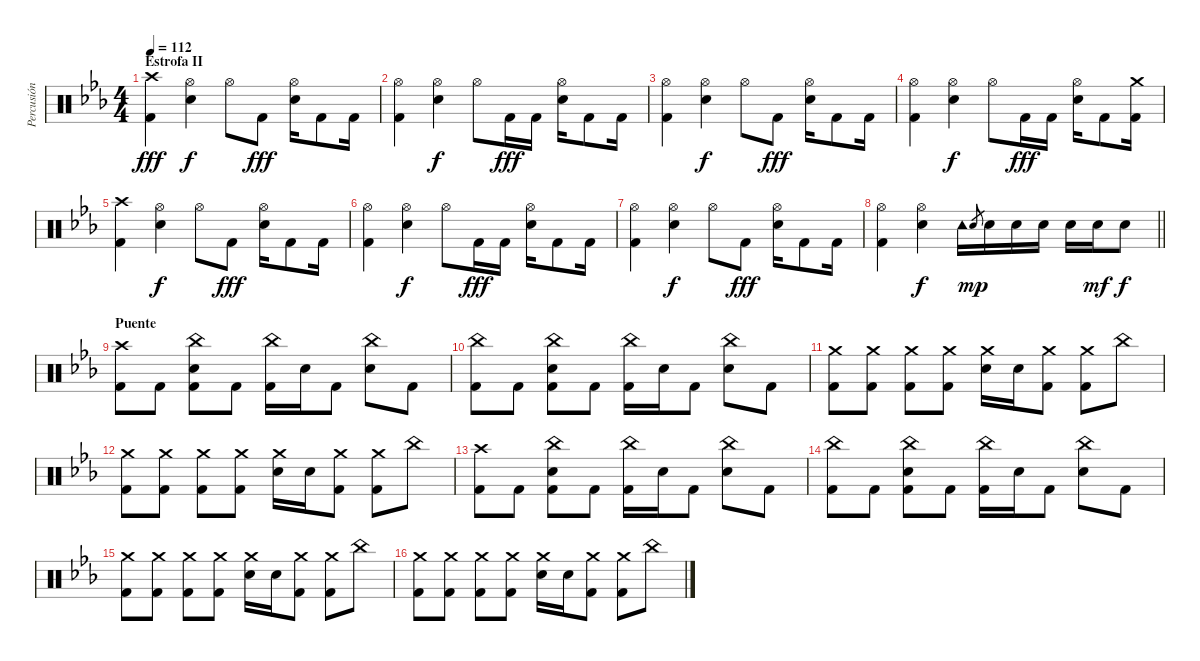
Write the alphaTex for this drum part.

\track ("Percusión" "Percusión") {instrument percussion}
\staff {score}
\articulation defaults
\ts (4 4)
\section ("" "Estrofa II")
\tempo 112
\clef neutral
\ks cminor
("Crash high (hit)" "Kick (hit) 2").4{dy fff} ("Hi-Hat (open)" "Snare (hit) 2").4{dy f} "Hi-Hat (open)".8 "Kick (hit) 2".8{dy fff} ("Hi-Hat (open)" "Snare (hit) 2").16 "Kick (hit) 2".8 "Kick (hit) 2".16 |
("Hi-Hat (open)" "Kick (hit) 2").4 ("Hi-Hat (open)" "Snare (hit) 2").4{dy f} "Hi-Hat (open)".8 "Kick (hit) 2".16{dy fff} "Kick (hit) 2".16 ("Hi-Hat (open)" "Snare (hit) 2").16 "Kick (hit) 2".8 "Kick (hit) 2".16 |
("Hi-Hat (open)" "Kick (hit) 2").4 ("Hi-Hat (open)" "Snare (hit) 2").4{dy f} "Hi-Hat (open)".8 "Kick (hit) 2".8{dy fff} ("Hi-Hat (open)" "Snare (hit) 2").16 "Kick (hit) 2".8 "Kick (hit) 2".16 |
("Hi-Hat (open)" "Kick (hit) 2").4 ("Hi-Hat (open)" "Snare (hit) 2").4{dy f} "Hi-Hat (open)".8 "Kick (hit) 2".16{dy fff} "Kick (hit) 2".16 ("Hi-Hat (open)" "Snare (hit) 2").16 "Kick (hit) 2".8 ("Crash medium (hit)" "Kick (hit) 2").16 |
("Crash high (hit)" "Kick (hit) 2").4 ("Hi-Hat (open)" "Snare (hit) 2").4{dy f} "Hi-Hat (open)".8 "Kick (hit) 2".8{dy fff} ("Hi-Hat (open)" "Snare (hit) 2").16 "Kick (hit) 2".8 "Kick (hit) 2".16 |
("Hi-Hat (open)" "Kick (hit) 2").4 ("Hi-Hat (open)" "Snare (hit) 2").4{dy f} "Hi-Hat (open)".8 "Kick (hit) 2".16{dy fff} "Kick (hit) 2".16 ("Hi-Hat (open)" "Snare (hit) 2").16 "Kick (hit) 2".8 "Kick (hit) 2".16 |
("Hi-Hat (open)" "Kick (hit) 2").4 ("Hi-Hat (open)" "Snare (hit) 2").4{dy f} "Hi-Hat (open)".8 "Kick (hit) 2".8{dy fff} ("Hi-Hat (open)" "Snare (hit) 2").16 "Kick (hit) 2".8 "Kick (hit) 2".16 |
\barLineRight lightlight
("Hi-Hat (open)" "Kick (hit) 2").4 ("Hi-Hat (open)" "Snare (hit) 2").4{dy f} "Tambourine (hit)".16 "Snare (hit) 2".8{gr dy mp} "Snare (hit) 2".16 "Snare (hit) 2".16 "Snare (hit) 2".16 "Snare (hit) 2".16 "Snare (hit) 2".16{dy mf} "Snare (hit) 2".8{dy f} |
\section ("" "Puente")
("Crash high (hit)" "Kick (hit) 2").8 "Kick (hit) 2".8 ("China (hit)" "Snare (hit) 2" "Kick (hit) 2").8 "Kick (hit) 2".8 ("China (hit)" "Kick (hit) 2").16 "Snare (hit) 2".16 "Kick (hit) 2".8 ("China (hit)" "Snare (hit) 2").8 "Kick (hit) 2".8 |
("China (hit)" "Kick (hit) 2").8 "Kick (hit) 2".8 ("China (hit)" "Snare (hit) 2" "Kick (hit) 2").8 "Kick (hit) 2".8 ("China (hit)" "Kick (hit) 2").16 "Snare (hit) 2".16 "Kick (hit) 2".8 ("China (hit)" "Snare (hit) 2").8 "Kick (hit) 2".8 |
("Crash medium (hit)" "Kick (hit) 2").8 ("Crash medium (hit)" "Kick (hit) 2").8 ("Crash medium (hit)" "Kick (hit) 2").8 ("Crash medium (hit)" "Kick (hit) 2").8 ("Crash medium (hit)" "Snare (hit) 2").16 "Snare (hit) 2".16 ("Crash medium (hit)" "Kick (hit) 2").8 ("Crash medium (hit)" "Kick (hit) 2").8 "China (hit)".8 |
("Crash medium (hit)" "Kick (hit) 2").8 ("Crash medium (hit)" "Kick (hit) 2").8 ("Crash medium (hit)" "Kick (hit) 2").8 ("Crash medium (hit)" "Kick (hit) 2").8 ("Crash medium (hit)" "Snare (hit) 2").16 "Snare (hit) 2".16 ("Crash medium (hit)" "Kick (hit) 2").8 ("Crash medium (hit)" "Kick (hit) 2").8 "China (hit)".8 |
("Crash high (hit)" "Kick (hit) 2").8 "Kick (hit) 2".8 ("China (hit)" "Snare (hit) 2" "Kick (hit) 2").8 "Kick (hit) 2".8 ("China (hit)" "Kick (hit) 2").16 "Snare (hit) 2".16 "Kick (hit) 2".8 ("China (hit)" "Snare (hit) 2").8 "Kick (hit) 2".8 |
("China (hit)" "Kick (hit) 2").8 "Kick (hit) 2".8 ("China (hit)" "Snare (hit) 2" "Kick (hit) 2").8 "Kick (hit) 2".8 ("China (hit)" "Kick (hit) 2").16 "Snare (hit) 2".16 "Kick (hit) 2".8 ("China (hit)" "Snare (hit) 2").8 "Kick (hit) 2".8 |
("Crash medium (hit)" "Kick (hit) 2").8 ("Crash medium (hit)" "Kick (hit) 2").8 ("Crash medium (hit)" "Kick (hit) 2").8 ("Crash medium (hit)" "Kick (hit) 2").8 ("Crash medium (hit)" "Snare (hit) 2").16 "Snare (hit) 2".16 ("Crash medium (hit)" "Kick (hit) 2").8 ("Crash medium (hit)" "Kick (hit) 2").8 "China (hit)".8 |
("Crash medium (hit)" "Kick (hit) 2").8 ("Crash medium (hit)" "Kick (hit) 2").8 ("Crash medium (hit)" "Kick (hit) 2").8 ("Crash medium (hit)" "Kick (hit) 2").8 ("Crash medium (hit)" "Snare (hit) 2").16 "Snare (hit) 2".16 ("Crash medium (hit)" "Kick (hit) 2").8 ("Crash medium (hit)" "Kick (hit) 2").8 "China (hit)".8
